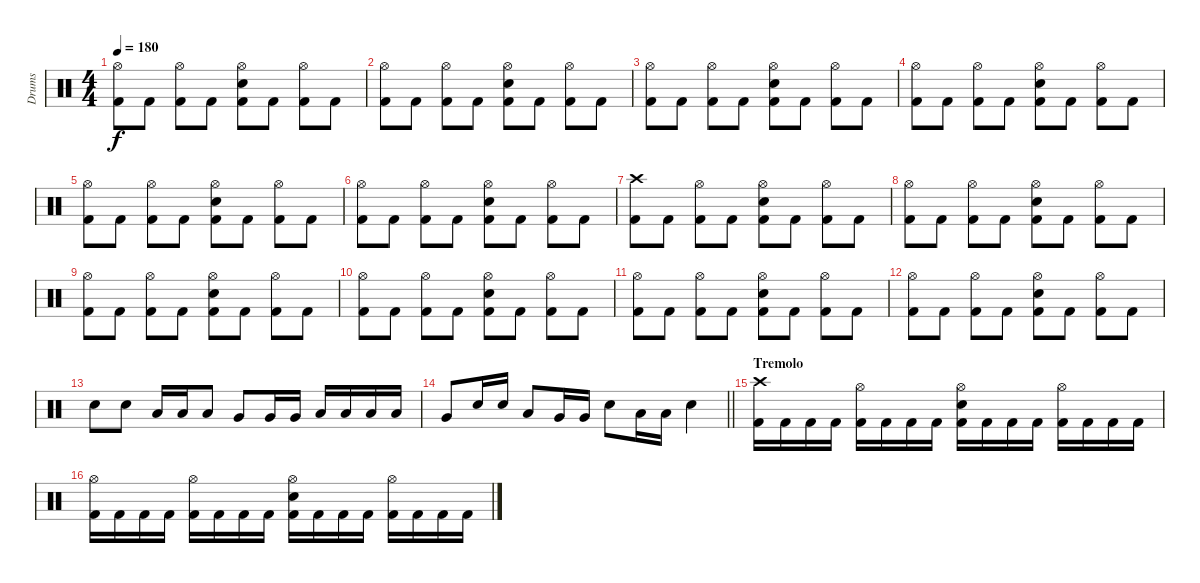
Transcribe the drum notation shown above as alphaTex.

\track ("Drums" "Drums") {instrument percussion}
\staff {score}
\articulation defaults
\ts (4 4)
\tempo 180
\clef neutral
\ks c
("Hi-Hat (open)" "Kick (hit) 2").8{dy f} "Kick (hit) 2".8 ("Hi-Hat (open)" "Kick (hit) 2").8 "Kick (hit) 2".8 ("Hi-Hat (open)" "Snare (hit) 2" "Kick (hit) 2").8 "Kick (hit) 2".8 ("Hi-Hat (open)" "Kick (hit) 2").8 "Kick (hit) 2".8 |
("Hi-Hat (open)" "Kick (hit) 2").8 "Kick (hit) 2".8 ("Hi-Hat (open)" "Kick (hit) 2").8 "Kick (hit) 2".8 ("Hi-Hat (open)" "Snare (hit) 2" "Kick (hit) 2").8 "Kick (hit) 2".8 ("Hi-Hat (open)" "Kick (hit) 2").8 "Kick (hit) 2".8 |
("Hi-Hat (open)" "Kick (hit) 2").8 "Kick (hit) 2".8 ("Hi-Hat (open)" "Kick (hit) 2").8 "Kick (hit) 2".8 ("Hi-Hat (open)" "Snare (hit) 2" "Kick (hit) 2").8 "Kick (hit) 2".8 ("Hi-Hat (open)" "Kick (hit) 2").8 "Kick (hit) 2".8 |
("Hi-Hat (open)" "Kick (hit) 2").8 "Kick (hit) 2".8 ("Hi-Hat (open)" "Kick (hit) 2").8 "Kick (hit) 2".8 ("Hi-Hat (open)" "Snare (hit) 2" "Kick (hit) 2").8 "Kick (hit) 2".8 ("Hi-Hat (open)" "Kick (hit) 2").8 "Kick (hit) 2".8 |
("Hi-Hat (open)" "Kick (hit) 2").8 "Kick (hit) 2".8 ("Hi-Hat (open)" "Kick (hit) 2").8 "Kick (hit) 2".8 ("Hi-Hat (open)" "Snare (hit) 2" "Kick (hit) 2").8 "Kick (hit) 2".8 ("Hi-Hat (open)" "Kick (hit) 2").8 "Kick (hit) 2".8 |
("Hi-Hat (open)" "Kick (hit) 2").8 "Kick (hit) 2".8 ("Hi-Hat (open)" "Kick (hit) 2").8 "Kick (hit) 2".8 ("Hi-Hat (open)" "Snare (hit) 2" "Kick (hit) 2").8 "Kick (hit) 2".8 ("Hi-Hat (open)" "Kick (hit) 2").8 "Kick (hit) 2".8 |
("Crash high (hit)" "Kick (hit) 2").8 "Kick (hit) 2".8 ("Hi-Hat (open)" "Kick (hit) 2").8 "Kick (hit) 2".8 ("Hi-Hat (open)" "Snare (hit) 2" "Kick (hit) 2").8 "Kick (hit) 2".8 ("Hi-Hat (open)" "Kick (hit) 2").8 "Kick (hit) 2".8 |
("Hi-Hat (open)" "Kick (hit) 2").8 "Kick (hit) 2".8 ("Hi-Hat (open)" "Kick (hit) 2").8 "Kick (hit) 2".8 ("Hi-Hat (open)" "Snare (hit) 2" "Kick (hit) 2").8 "Kick (hit) 2".8 ("Hi-Hat (open)" "Kick (hit) 2").8 "Kick (hit) 2".8 |
("Hi-Hat (open)" "Kick (hit) 2").8 "Kick (hit) 2".8 ("Hi-Hat (open)" "Kick (hit) 2").8 "Kick (hit) 2".8 ("Hi-Hat (open)" "Snare (hit) 2" "Kick (hit) 2").8 "Kick (hit) 2".8 ("Hi-Hat (open)" "Kick (hit) 2").8 "Kick (hit) 2".8 |
("Hi-Hat (open)" "Kick (hit) 2").8 "Kick (hit) 2".8 ("Hi-Hat (open)" "Kick (hit) 2").8 "Kick (hit) 2".8 ("Hi-Hat (open)" "Snare (hit) 2" "Kick (hit) 2").8 "Kick (hit) 2".8 ("Hi-Hat (open)" "Kick (hit) 2").8 "Kick (hit) 2".8 |
("Hi-Hat (open)" "Kick (hit) 2").8 "Kick (hit) 2".8 ("Hi-Hat (open)" "Kick (hit) 2").8 "Kick (hit) 2".8 ("Hi-Hat (open)" "Snare (hit) 2" "Kick (hit) 2").8 "Kick (hit) 2".8 ("Hi-Hat (open)" "Kick (hit) 2").8 "Kick (hit) 2".8 |
("Hi-Hat (open)" "Kick (hit) 2").8 "Kick (hit) 2".8 ("Hi-Hat (open)" "Kick (hit) 2").8 "Kick (hit) 2".8 ("Hi-Hat (open)" "Snare (hit) 2" "Kick (hit) 2").8 "Kick (hit) 2".8 ("Hi-Hat (open)" "Kick (hit) 2").8 "Kick (hit) 2".8 |
"Snare (hit) 2".8 "Snare (hit) 2".8 "Low Tom (hit)".16 "Low Tom (hit)".16 "Low Tom (hit)".8 "Very Low Tom (hit)".8 "Very Low Tom (hit)".16 "Very Low Tom (hit)".16 "Low Tom (hit)".16 "Low Tom (hit)".16 "Low Tom (hit)".16 "Low Tom (hit)".16 |
\barLineRight lightlight "Very Low Tom (hit)".8 "Snare (hit) 2".16 "Snare (hit) 2".16 "Low Floor Tom (hit)".8 "Very Low Tom (hit)".16 "Very Low Tom (hit)".16 "Snare (hit) 2".8 "Low Floor Tom (hit)".16 "Low Floor Tom (hit)".16 "Snare (hit) 2".4
|
\section ("" "Tremolo")
("Crash high (hit)" "Kick (hit) 2").16 "Kick (hit) 2".16 "Kick (hit) 2".16 "Kick (hit) 2".16 ("Hi-Hat (open)" "Kick (hit) 2").16 "Kick (hit) 2".16 "Kick (hit) 2".16 "Kick (hit) 2".16 ("Hi-Hat (open)" "Snare (hit) 2" "Kick (hit) 2").16 "Kick (hit) 2".16 "Kick (hit) 2".16 "Kick (hit) 2".16 ("Hi-Hat (open)" "Kick (hit) 2").16 "Kick (hit) 2".16 "Kick (hit) 2".16 "Kick (hit) 2".16 |
("Hi-Hat (open)" "Kick (hit) 2").16 "Kick (hit) 2".16 "Kick (hit) 2".16 "Kick (hit) 2".16 ("Hi-Hat (open)" "Kick (hit) 2").16 "Kick (hit) 2".16 "Kick (hit) 2".16 "Kick (hit) 2".16 ("Hi-Hat (open)" "Snare (hit) 2" "Kick (hit) 2").16 "Kick (hit) 2".16 "Kick (hit) 2".16 "Kick (hit) 2".16 ("Hi-Hat (open)" "Kick (hit) 2").16 "Kick (hit) 2".16 "Kick (hit) 2".16 "Kick (hit) 2".16
